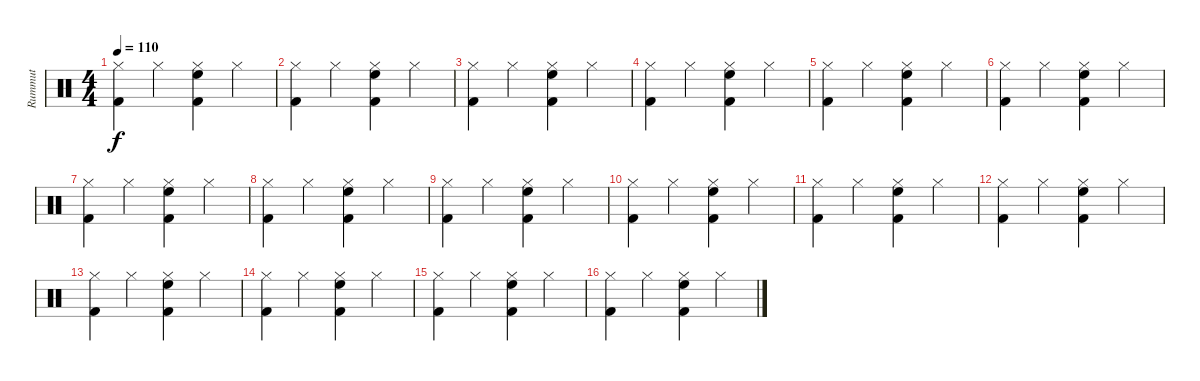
\track ("Rummut" "Rummut") {instrument percussion}
\staff {score}
\articulation defaults
\ts (4 4)
\tempo 110
\clef neutral
\ks c
("Hi-Hat (closed)" "Kick (hit) 2").4{dy f} "Hi-Hat (closed)".4 ("Hi-Hat (closed)" "High Floor Tom (hit)" "Kick (hit) 2").4 "Hi-Hat (closed)".4 |
("Hi-Hat (closed)" "Kick (hit) 2").4 "Hi-Hat (closed)".4 ("Hi-Hat (closed)" "High Floor Tom (hit)" "Kick (hit) 2").4 "Hi-Hat (closed)".4 |
("Hi-Hat (closed)" "Kick (hit) 2").4 "Hi-Hat (closed)".4 ("Hi-Hat (closed)" "High Floor Tom (hit)" "Kick (hit) 2").4 "Hi-Hat (closed)".4 |
("Hi-Hat (closed)" "Kick (hit) 2").4 "Hi-Hat (closed)".4 ("Hi-Hat (closed)" "High Floor Tom (hit)" "Kick (hit) 2").4 "Hi-Hat (closed)".4 |
("Hi-Hat (closed)" "Kick (hit) 2").4 "Hi-Hat (closed)".4 ("Hi-Hat (closed)" "High Floor Tom (hit)" "Kick (hit) 2").4 "Hi-Hat (closed)".4 |
("Hi-Hat (closed)" "Kick (hit) 2").4 "Hi-Hat (closed)".4 ("Hi-Hat (closed)" "High Floor Tom (hit)" "Kick (hit) 2").4 "Hi-Hat (closed)".4 |
("Hi-Hat (closed)" "Kick (hit) 2").4 "Hi-Hat (closed)".4 ("Hi-Hat (closed)" "High Floor Tom (hit)" "Kick (hit) 2").4 "Hi-Hat (closed)".4 |
("Hi-Hat (closed)" "Kick (hit) 2").4 "Hi-Hat (closed)".4 ("Hi-Hat (closed)" "High Floor Tom (hit)" "Kick (hit) 2").4 "Hi-Hat (closed)".4 |
("Hi-Hat (closed)" "Kick (hit) 2").4 "Hi-Hat (closed)".4 ("Hi-Hat (closed)" "High Floor Tom (hit)" "Kick (hit) 2").4 "Hi-Hat (closed)".4 |
("Hi-Hat (closed)" "Kick (hit) 2").4 "Hi-Hat (closed)".4 ("Hi-Hat (closed)" "High Floor Tom (hit)" "Kick (hit) 2").4 "Hi-Hat (closed)".4 |
("Hi-Hat (closed)" "Kick (hit) 2").4 "Hi-Hat (closed)".4 ("Hi-Hat (closed)" "High Floor Tom (hit)" "Kick (hit) 2").4 "Hi-Hat (closed)".4 |
("Hi-Hat (closed)" "Kick (hit) 2").4 "Hi-Hat (closed)".4 ("Hi-Hat (closed)" "High Floor Tom (hit)" "Kick (hit) 2").4 "Hi-Hat (closed)".4 |
("Hi-Hat (closed)" "Kick (hit) 2").4 "Hi-Hat (closed)".4 ("Hi-Hat (closed)" "High Floor Tom (hit)" "Kick (hit) 2").4 "Hi-Hat (closed)".4 |
("Hi-Hat (closed)" "Kick (hit) 2").4 "Hi-Hat (closed)".4 ("Hi-Hat (closed)" "High Floor Tom (hit)" "Kick (hit) 2").4 "Hi-Hat (closed)".4 |
("Hi-Hat (closed)" "Kick (hit) 2").4 "Hi-Hat (closed)".4 ("Hi-Hat (closed)" "High Floor Tom (hit)" "Kick (hit) 2").4 "Hi-Hat (closed)".4 |
("Hi-Hat (closed)" "Kick (hit) 2").4 "Hi-Hat (closed)".4 ("Hi-Hat (closed)" "High Floor Tom (hit)" "Kick (hit) 2").4 "Hi-Hat (closed)".4
